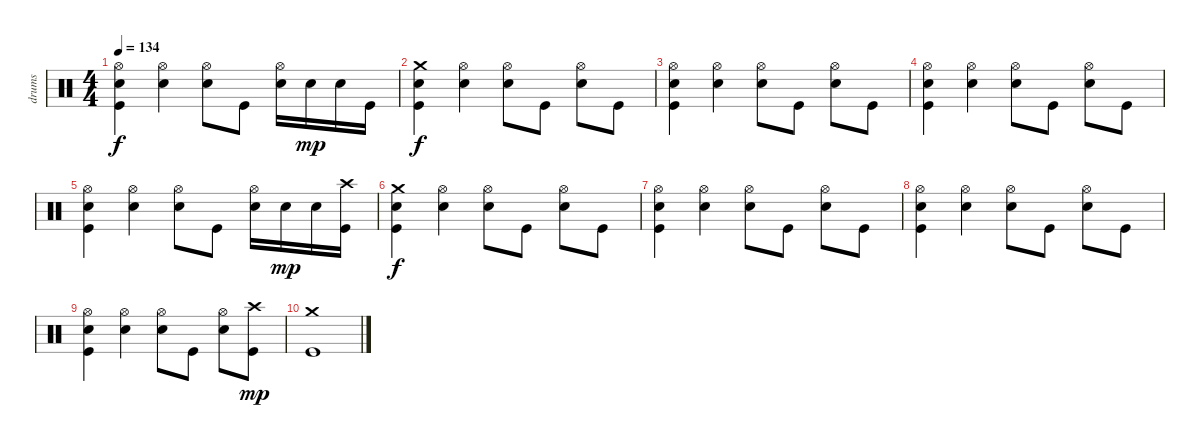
\track ("drums" "drums") {instrument percussion}
\staff {score}
\articulation defaults
\ts (4 4)
\tempo 134
\clef neutral
\ks c
("Hi-Hat (open)" "Snare (hit) 2" "Kick (hit)").4{dy f} ("Hi-Hat (open)" "Snare (hit) 2").4 ("Hi-Hat (open)" "Snare (hit) 2").8 "Kick (hit)".8 ("Hi-Hat (open)" "Snare (hit) 2").16 "Snare (hit) 2".16{dy mp} "Snare (hit) 2".16 "Kick (hit)".16 |
("Crash medium (hit)" "Snare (hit) 2" "Kick (hit)").4{dy f} ("Hi-Hat (open)" "Snare (hit) 2").4 ("Hi-Hat (open)" "Snare (hit) 2").8 "Kick (hit)".8 ("Hi-Hat (open)" "Snare (hit) 2").8 "Kick (hit)".8 |
("Hi-Hat (open)" "Snare (hit) 2" "Kick (hit)").4 ("Hi-Hat (open)" "Snare (hit) 2").4 ("Hi-Hat (open)" "Snare (hit) 2").8 "Kick (hit)".8 ("Hi-Hat (open)" "Snare (hit) 2").8 "Kick (hit)".8 |
("Hi-Hat (open)" "Snare (hit) 2" "Kick (hit)").4 ("Hi-Hat (open)" "Snare (hit) 2").4 ("Hi-Hat (open)" "Snare (hit) 2").8 "Kick (hit)".8 ("Hi-Hat (open)" "Snare (hit) 2").8 "Kick (hit)".8 |
("Hi-Hat (open)" "Snare (hit) 2" "Kick (hit)").4 ("Hi-Hat (open)" "Snare (hit) 2").4 ("Hi-Hat (open)" "Snare (hit) 2").8 "Kick (hit)".8 ("Hi-Hat (open)" "Snare (hit) 2").16 "Snare (hit) 2".16{dy mp} "Snare (hit) 2".16 ("Crash high (hit)" "Kick (hit)").16 |
("Crash medium (hit)" "Snare (hit) 2" "Kick (hit)").4{dy f} ("Hi-Hat (open)" "Snare (hit) 2").4 ("Hi-Hat (open)" "Snare (hit) 2").8 "Kick (hit)".8 ("Hi-Hat (open)" "Snare (hit) 2").8 "Kick (hit)".8 |
("Hi-Hat (open)" "Snare (hit) 2" "Kick (hit)").4 ("Hi-Hat (open)" "Snare (hit) 2").4 ("Hi-Hat (open)" "Snare (hit) 2").8 "Kick (hit)".8 ("Hi-Hat (open)" "Snare (hit) 2").8 "Kick (hit)".8 |
("Hi-Hat (open)" "Snare (hit) 2" "Kick (hit)").4 ("Hi-Hat (open)" "Snare (hit) 2").4 ("Hi-Hat (open)" "Snare (hit) 2").8 "Kick (hit)".8 ("Hi-Hat (open)" "Snare (hit) 2").8 "Kick (hit)".8 |
("Hi-Hat (open)" "Snare (hit) 2" "Kick (hit)").4 ("Hi-Hat (open)" "Snare (hit) 2").4 ("Hi-Hat (open)" "Snare (hit) 2").8 "Kick (hit)".8 ("Hi-Hat (open)" "Snare (hit) 2").8 ("Crash high (hit)" "Kick (hit)").8{dy mp} |
("Crash medium (hit)" "Kick (hit)").1
